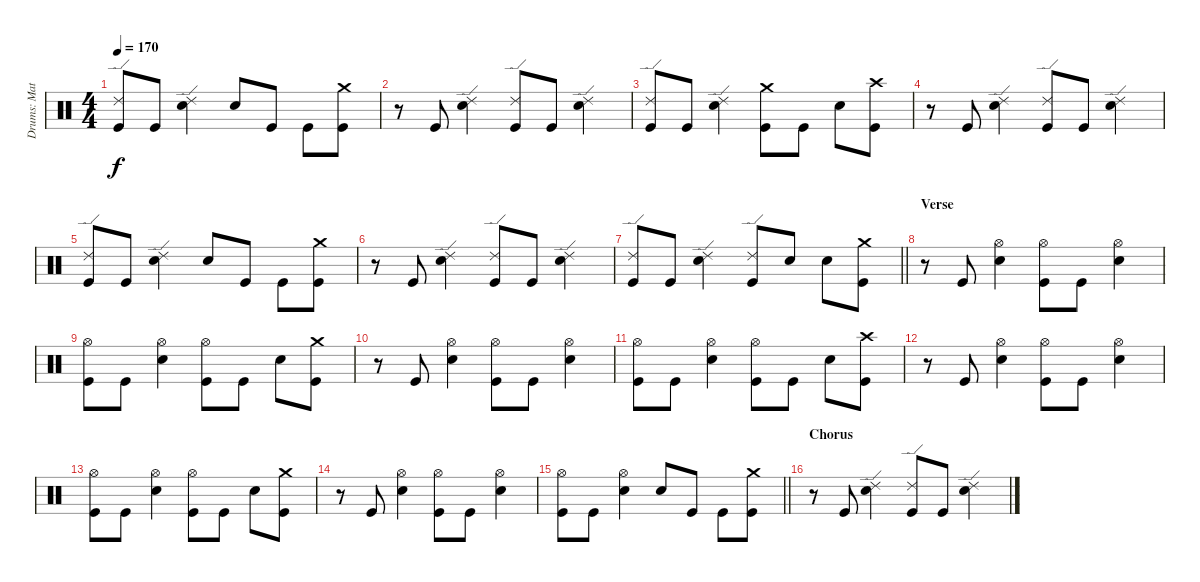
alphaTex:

\track ("Drums: Matt" "Drums: Mat") {solo instrument percussion}
\staff {score}
\articulation defaults
\ts (4 4)
\tempo 170
\clef neutral
\ks c
("Kick (hit)" "Ride (edge) 2").8{dy f} "Kick (hit)".8 ("Ride (edge) 2" "Snare (hit) 2").4 "Snare (hit) 2".8 "Kick (hit)".8 "Kick (hit)".8 ("Crash medium (hit)" "Kick (hit)").8 |
r.8 "Kick (hit)".8 ("Snare (hit) 2" "Ride (edge) 2").4 ("Ride (edge) 2" "Kick (hit)").8 "Kick (hit)".8 ("Snare (hit) 2" "Ride (edge) 2").4 |
("Ride (edge) 2" "Kick (hit)").8 "Kick (hit)".8 ("Ride (edge) 2" "Snare (hit) 2").4 ("Crash medium (hit)" "Kick (hit)").8 "Kick (hit)".8 "Snare (hit) 2".8 ("Crash high (hit)" "Kick (hit)").8 |
r.8 "Kick (hit)".8 ("Ride (edge) 2" "Snare (hit) 2").4 ("Ride (edge) 2" "Kick (hit)").8 "Kick (hit)".8 ("Ride (edge) 2" "Snare (hit) 2").4 |
("Kick (hit)" "Ride (edge) 2").8 "Kick (hit)".8 ("Ride (edge) 2" "Snare (hit) 2").4 "Snare (hit) 2".8 "Kick (hit)".8 "Kick (hit)".8 ("Crash medium (hit)" "Kick (hit)").8 |
r.8 "Kick (hit)".8 ("Ride (edge) 2" "Snare (hit) 2").4 ("Ride (edge) 2" "Kick (hit)").8 "Kick (hit)".8 ("Ride (edge) 2" "Snare (hit) 2").4 |
\barLineRight lightlight
("Ride (edge) 2" "Kick (hit)").8 "Kick (hit)".8 ("Ride (edge) 2" "Snare (hit) 2").4 ("Ride (edge) 2" "Kick (hit)").8 "Snare (hit) 2".8 "Snare (hit) 2".8 ("Kick (hit)" "Crash medium (hit)").8 |
\section ("" "Verse")
r.8 "Kick (hit)".8 ("Snare (hit) 2" "Hi-Hat (open)").4 ("Kick (hit)" "Hi-Hat (open)").8 "Kick (hit)".8 ("Hi-Hat (open)" "Snare (hit) 2").4 |
("Hi-Hat (open)" "Kick (hit)").8 "Kick (hit)".8 ("Snare (hit) 2" "Hi-Hat (open)").4 ("Hi-Hat (open)" "Kick (hit)").8 "Kick (hit)".8 "Snare (hit) 2".8 ("Kick (hit)" "Crash medium (hit)").8 |
r.8 "Kick (hit)".8 ("Hi-Hat (open)" "Snare (hit) 2").4 ("Hi-Hat (open)" "Kick (hit)").8 "Kick (hit)".8 ("Hi-Hat (open)" "Snare (hit) 2").4 |
("Kick (hit)" "Hi-Hat (open)").8 "Kick (hit)".8 ("Snare (hit) 2" "Hi-Hat (open)").4 ("Kick (hit)" "Hi-Hat (open)").8 "Kick (hit)".8 "Snare (hit) 2".8 ("Kick (hit)" "Crash high (hit)").8 |
r.8 "Kick (hit)".8 ("Hi-Hat (open)" "Snare (hit) 2").4 ("Kick (hit)" "Hi-Hat (open)").8 "Kick (hit)".8 ("Snare (hit) 2" "Hi-Hat (open)").4 |
("Hi-Hat (open)" "Kick (hit)").8 "Kick (hit)".8 ("Hi-Hat (open)" "Snare (hit) 2").4 ("Hi-Hat (open)" "Kick (hit)").8 "Kick (hit)".8 "Snare (hit) 2".8 ("Kick (hit)" "Crash medium (hit)").8 |
r.8 "Kick (hit)".8 ("Snare (hit) 2" "Hi-Hat (open)").4 ("Hi-Hat (open)" "Kick (hit)").8 "Kick (hit)".8 ("Snare (hit) 2" "Hi-Hat (open)").4 |
\barLineRight lightlight
("Kick (hit)" "Hi-Hat (open)").8 "Kick (hit)".8 ("Hi-Hat (open)" "Snare (hit) 2").4 "Snare (hit) 2".8 "Kick (hit)".8 "Kick (hit)".8 ("Crash medium (hit)" "Kick (hit)").8 |
\section ("" "Chorus")
r.8 "Kick (hit)".8 ("Ride (edge) 2" "Snare (hit) 2").4 ("Kick (hit)" "Ride (edge) 2").8 "Kick (hit)".8 ("Snare (hit) 2" "Ride (edge) 2").4
